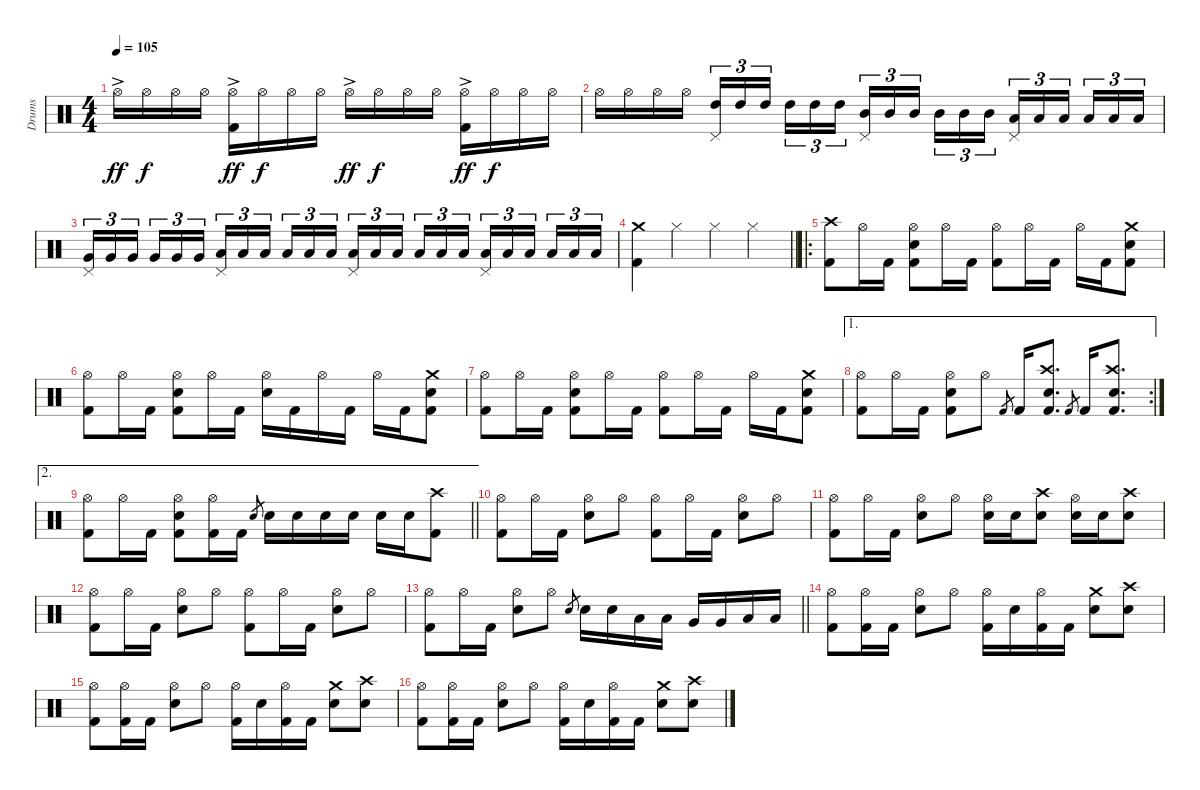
\track ("Drums" "Drums") {instrument percussion}
\staff {score}
\articulation defaults
\ts (4 4)
\tempo 105
\clef neutral
\ks c "Hi-Hat (open)"{ac}.16{dy ff} "Hi-Hat (open)".16{dy f} "Hi-Hat (open)".16 "Hi-Hat (open)".16
("Hi-Hat (open)"{ac} "Kick (hit) 2").16{dy ff} "Hi-Hat (open)".16{dy f} "Hi-Hat (open)".16 "Hi-Hat (open)".16 "Hi-Hat (open)"{ac}.16{dy ff} "Hi-Hat (open)".16{dy f} "Hi-Hat (open)".16 "Hi-Hat (open)".16 ("Hi-Hat (open)"{ac} "Kick (hit) 2").16{dy ff} "Hi-Hat (open)".16{dy f} "Hi-Hat (open)".16 "Hi-Hat (open)".16 |
"Hi-Hat (open)".16 "Hi-Hat (open)".16 "Hi-Hat (open)".16 "Hi-Hat (open)".16 ("Pedal Hi-Hat (hit)" "High Tom (hit)").16{tu (3 2)} "High Tom (hit)".16{tu (3 2)} "High Tom (hit)".16{tu (3 2) beam splitsecondary} "High Tom (hit)".16{tu (3 2)} "High Tom (hit)".16{tu (3 2)} "High Tom (hit)".16{tu (3 2)} ("Pedal Hi-Hat (hit)" "Mid Tom (hit)").16{tu (3 2)} "Mid Tom (hit)".16{tu (3 2)} "Mid Tom (hit)".16{tu (3 2) beam splitsecondary} "Mid Tom (hit)".16{tu (3 2)} "Mid Tom (hit)".16{tu (3 2)} "Mid Tom (hit)".16{tu (3 2)} ("Pedal Hi-Hat (hit)" "Low Tom (hit)").16{tu (3 2)} "Low Tom (hit)".16{tu (3 2)} "Low Tom (hit)".16{tu (3 2) beam splitsecondary} "Low Tom (hit)".16{tu (3 2)} "Low Tom (hit)".16{tu (3 2)} "Low Tom (hit)".16{tu (3 2)} |
("Pedal Hi-Hat (hit)" "Very Low Tom (hit)").16{tu (3 2)} "Very Low Tom (hit)".16{tu (3 2)} "Very Low Tom (hit)".16{tu (3 2) beam splitsecondary} "Very Low Tom (hit)".16{tu (3 2)} "Very Low Tom (hit)".16{tu (3 2)} "Very Low Tom (hit)".16{tu (3 2)} ("Pedal Hi-Hat (hit)" "Low Floor Tom (hit)").16{tu (3 2)} "Low Floor Tom (hit)".16{tu (3 2)} "Low Floor Tom (hit)".16{tu (3 2) beam splitsecondary} "Low Floor Tom (hit)".16{tu (3 2)} "Low Floor Tom (hit)".16{tu (3 2)} "Low Floor Tom (hit)".16{tu (3 2)} ("Pedal Hi-Hat (hit)" "Low Floor Tom (hit)").16{tu (3 2)} "Low Floor Tom (hit)".16{tu (3 2)} "Low Floor Tom (hit)".16{tu (3 2) beam splitsecondary} "Low Floor Tom (hit)".16{tu (3 2)} "Low Floor Tom (hit)".16{tu (3 2)} "Low Floor Tom (hit)".16{tu (3 2)} ("Pedal Hi-Hat (hit)" "Low Floor Tom (hit)").16{tu (3 2)} "Low Floor Tom (hit)".16{tu (3 2)} "Low Floor Tom (hit)".16{tu (3 2) beam splitsecondary} "Low Floor Tom (hit)".16{tu (3 2)} "Low Floor Tom (hit)".16{tu (3 2)} "Low Floor Tom (hit)".16{tu (3 2)} |
\barLineRight lightlight
("Crash medium (hit)" "Kick (hit) 2").4 "Hi-Hat (closed)".4 "Hi-Hat (closed)".4 "Hi-Hat (closed)".4 |
\ro
("Crash high (hit)" "Kick (hit) 2").8 "Hi-Hat (open)".16 "Kick (hit) 2".16 ("Hi-Hat (open)" "Snare (hit) 2" "Kick (hit) 2").8 "Hi-Hat (open)".16 "Kick (hit) 2".16 ("Hi-Hat (open)" "Kick (hit) 2").8 "Hi-Hat (open)".16 "Kick (hit) 2".16 "Hi-Hat (open)".16 "Kick (hit) 2".16 ("Crash medium (hit)" "Snare (hit) 2" "Kick (hit) 2").8 |
("Hi-Hat (open)" "Kick (hit) 2").8 "Hi-Hat (open)".16 "Kick (hit) 2".16 ("Hi-Hat (open)" "Snare (hit) 2" "Kick (hit) 2").8 "Hi-Hat (open)".16 "Kick (hit) 2".16 ("Hi-Hat (open)" "Snare (hit) 2").16 "Kick (hit) 2".16 "Hi-Hat (open)".16 "Kick (hit) 2".16 "Hi-Hat (open)".16 "Kick (hit) 2".16 ("Crash medium (hit)" "Snare (hit) 2" "Kick (hit) 2").8 |
("Hi-Hat (open)" "Kick (hit) 2").8 "Hi-Hat (open)".16 "Kick (hit) 2".16 ("Hi-Hat (open)" "Snare (hit) 2" "Kick (hit) 2").8 "Hi-Hat (open)".16 "Kick (hit) 2".16 ("Hi-Hat (open)" "Kick (hit) 2").8 "Hi-Hat (open)".16 "Kick (hit) 2".16 "Hi-Hat (open)".16 "Kick (hit) 2".16 ("Crash medium (hit)" "Snare (hit) 2" "Kick (hit) 2").8 |
\ae 1
\rc 2
("Hi-Hat (open)" "Kick (hit) 2").8 "Hi-Hat (open)".16 "Kick (hit) 2".16 ("Hi-Hat (open)" "Snare (hit) 2" "Kick (hit) 2").8 "Hi-Hat (open)".8 "Kick (hit) 2".8{gr} "Kick (hit) 2".16 ("Crash high (hit)" "Snare (hit) 2" "Kick (hit) 2").8{d} "Kick (hit) 2".8{gr} "Kick (hit) 2".16 ("Crash high (hit)" "Snare (hit) 2" "Kick (hit) 2").8{d} |
\ae 2
\barLineRight lightlight
("Hi-Hat (open)" "Kick (hit) 2").8 "Hi-Hat (open)".16 "Kick (hit) 2".16 ("Hi-Hat (open)" "Snare (hit) 2" "Kick (hit) 2").8 ("Hi-Hat (open)" "Kick (hit) 2").16 "Kick (hit) 2".16 "Snare (hit) 2".8{gr} "Snare (hit) 2".16 "Snare (hit) 2".16 "Snare (hit) 2".16 "Snare (hit) 2".16 "Snare (hit) 2".16 "Snare (hit) 2".16 ("Crash high (hit)" "Kick (hit) 2").8 |
("Hi-Hat (open)" "Kick (hit) 2").8 "Hi-Hat (open)".16 "Kick (hit) 2".16 ("Hi-Hat (open)" "Snare (hit) 2").8 "Hi-Hat (open)".8 ("Hi-Hat (open)" "Kick (hit) 2").8 "Hi-Hat (open)".16 "Kick (hit) 2".16 ("Hi-Hat (open)" "Snare (hit) 2").8 "Hi-Hat (open)".8 |
("Hi-Hat (open)" "Kick (hit) 2").8 "Hi-Hat (open)".16 "Kick (hit) 2".16 ("Hi-Hat (open)" "Snare (hit) 2").8 "Hi-Hat (open)".8 ("Hi-Hat (open)" "Snare (hit) 2").16 "Snare (hit) 2".16 ("Crash high (hit)" "Snare (hit) 2").8 ("Hi-Hat (open)" "Snare (hit) 2").16 "Snare (hit) 2".16 ("Crash high (hit)" "Snare (hit) 2").8 |
("Hi-Hat (open)" "Kick (hit) 2").8 "Hi-Hat (open)".16 "Kick (hit) 2".16 ("Hi-Hat (open)" "Snare (hit) 2").8 "Hi-Hat (open)".8 ("Hi-Hat (open)" "Kick (hit) 2").8 "Hi-Hat (open)".16 "Kick (hit) 2".16 ("Hi-Hat (open)" "Snare (hit) 2").8 "Hi-Hat (open)".8 |
\barLineRight lightlight
("Hi-Hat (open)" "Kick (hit) 2").8 "Hi-Hat (open)".16 "Kick (hit) 2".16 ("Hi-Hat (open)" "Snare (hit) 2").8 "Hi-Hat (open)".8 "Snare (hit) 2".8{gr} "Snare (hit) 2".16 "Snare (hit) 2".16 "Low Tom (hit)".16 "Low Tom (hit)".16 "Very Low Tom (hit)".16 "Very Low Tom (hit)".16 "Low Floor Tom (hit)".16 "Low Floor Tom (hit)".16 |
("Hi-Hat (open)" "Kick (hit) 2").8 ("Hi-Hat (open)" "Kick (hit) 2").16 "Kick (hit) 2".16 ("Hi-Hat (open)" "Snare (hit) 2").8 "Hi-Hat (open)".8 ("Hi-Hat (open)" "Kick (hit) 2").16 "Snare (hit) 2".16 ("Hi-Hat (open)" "Kick (hit) 2").16 "Kick (hit) 2".16 ("Crash medium (hit)" "Snare (hit) 2").8 ("Crash high (hit)" "Snare (hit) 2").8 |
("Hi-Hat (open)" "Kick (hit) 2").8 ("Hi-Hat (open)" "Kick (hit) 2").16 "Kick (hit) 2".16 ("Hi-Hat (open)" "Snare (hit) 2").8 "Hi-Hat (open)".8 ("Hi-Hat (open)" "Kick (hit) 2").16 "Snare (hit) 2".16 ("Hi-Hat (open)" "Kick (hit) 2").16 "Kick (hit) 2".16 ("Crash medium (hit)" "Snare (hit) 2").8 ("Crash high (hit)" "Snare (hit) 2").8 |
("Hi-Hat (open)" "Kick (hit) 2").8 ("Hi-Hat (open)" "Kick (hit) 2").16 "Kick (hit) 2".16 ("Hi-Hat (open)" "Snare (hit) 2").8 "Hi-Hat (open)".8 ("Hi-Hat (open)" "Kick (hit) 2").16 "Snare (hit) 2".16 ("Hi-Hat (open)" "Kick (hit) 2").16 "Kick (hit) 2".16 ("Crash medium (hit)" "Snare (hit) 2").8 ("Crash high (hit)" "Snare (hit) 2").8
